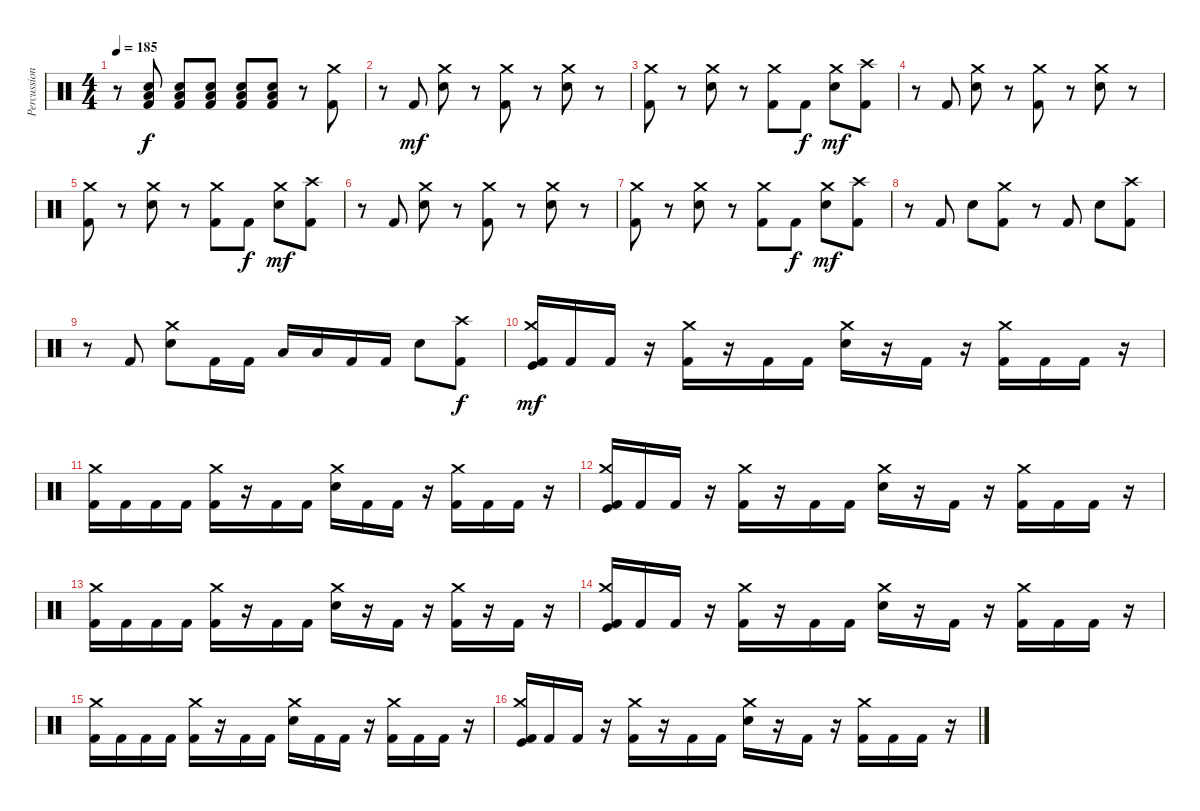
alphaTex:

\track ("Percussions" "Percussion") {instrument percussion}
\staff {score}
\articulation defaults
\ts (4 4)
\tempo 185
\clef neutral
\ks c
r.8{dy f} ("Kick (hit) 2" "Electric Snare (hit)" "Low Tom (hit)").8 ("Kick (hit) 2" "Electric Snare (hit)" "Low Tom (hit)").8 ("Kick (hit) 2" "Electric Snare (hit)" "Low Tom (hit)").8 ("Kick (hit) 2" "Electric Snare (hit)" "Low Tom (hit)").8 ("Kick (hit) 2" "Electric Snare (hit)" "Low Tom (hit)").8 r.8 ("Kick (hit) 2" "Crash medium (hit)").8 |
r.8 "Kick (hit) 2".8{dy mf} ("Electric Snare (hit)" "Crash medium (hit)").8 r.8 ("Kick (hit) 2" "Crash medium (hit)").8 r.8 ("Electric Snare (hit)" "Crash medium (hit)").8 r.8 |
("Kick (hit) 2" "Crash medium (hit)").8 r.8 ("Electric Snare (hit)" "Crash medium (hit)").8 r.8 ("Kick (hit) 2" "Crash medium (hit)").8 "Kick (hit) 2".8{dy f} ("Electric Snare (hit)" "Crash medium (hit)").8{dy mf} ("Kick (hit) 2" "Crash high (hit)").8 |
r.8 "Kick (hit) 2".8 ("Electric Snare (hit)" "Crash medium (hit)").8 r.8 ("Kick (hit) 2" "Crash medium (hit)").8 r.8 ("Electric Snare (hit)" "Crash medium (hit)").8 r.8 |
("Kick (hit) 2" "Crash medium (hit)").8 r.8 ("Electric Snare (hit)" "Crash medium (hit)").8 r.8 ("Kick (hit) 2" "Crash medium (hit)").8 "Kick (hit) 2".8{dy f} ("Electric Snare (hit)" "Crash medium (hit)").8{dy mf} ("Kick (hit) 2" "Crash high (hit)").8 |
r.8 "Kick (hit) 2".8 ("Electric Snare (hit)" "Crash medium (hit)").8 r.8 ("Kick (hit) 2" "Crash medium (hit)").8 r.8 ("Electric Snare (hit)" "Crash medium (hit)").8 r.8 |
("Kick (hit) 2" "Crash medium (hit)").8 r.8 ("Electric Snare (hit)" "Crash medium (hit)").8 r.8 ("Kick (hit) 2" "Crash medium (hit)").8 "Kick (hit) 2".8{dy f} ("Electric Snare (hit)" "Crash medium (hit)").8{dy mf} ("Kick (hit) 2" "Crash high (hit)").8 |
r.8 "Kick (hit) 2".8 "Electric Snare (hit)".8 ("Kick (hit) 2" "Crash medium (hit)").8 r.8 "Kick (hit) 2".8 "Electric Snare (hit)".8 ("Kick (hit) 2" "Crash high (hit)").8 |
r.8 "Kick (hit) 2".8 ("Electric Snare (hit)" "Crash medium (hit)").8 "Kick (hit) 2".16 "Kick (hit) 2".16 "Low Tom (hit)".16 "Low Tom (hit)".16 "Kick (hit) 2".16 "Kick (hit) 2".16 "Electric Snare (hit)".8 ("Kick (hit) 2" "Crash high (hit)").8{dy f} |
("Kick (hit) 2" "Kick (hit)" "Crash medium (hit)").16{dy mf} "Kick (hit) 2".16 "Kick (hit) 2".16 r.16 ("Kick (hit) 2" "Crash medium (hit)").16 r.16 "Kick (hit) 2".16 "Kick (hit) 2".16 ("Electric Snare (hit)" "Crash medium (hit)").16 r.16 "Kick (hit) 2".16 r.16 ("Kick (hit) 2" "Crash medium (hit)").16 "Kick (hit) 2".16 "Kick (hit) 2".16 r.16 |
("Kick (hit) 2" "Crash medium (hit)").16 "Kick (hit) 2".16 "Kick (hit) 2".16 "Kick (hit) 2".16 ("Kick (hit) 2" "Crash medium (hit)").16 r.16 "Kick (hit) 2".16 "Kick (hit) 2".16 ("Electric Snare (hit)" "Crash medium (hit)").16 "Kick (hit) 2".16 "Kick (hit) 2".16 r.16 ("Kick (hit) 2" "Crash medium (hit)").16 "Kick (hit) 2".16 "Kick (hit) 2".16 r.16 |
("Kick (hit) 2" "Kick (hit)" "Crash medium (hit)").16 "Kick (hit) 2".16 "Kick (hit) 2".16 r.16 ("Kick (hit) 2" "Crash medium (hit)").16 r.16 "Kick (hit) 2".16 "Kick (hit) 2".16 ("Electric Snare (hit)" "Crash medium (hit)").16 r.16 "Kick (hit) 2".16 r.16 ("Kick (hit) 2" "Crash medium (hit)").16 "Kick (hit) 2".16 "Kick (hit) 2".16 r.16 |
("Kick (hit) 2" "Crash medium (hit)").16 "Kick (hit) 2".16 "Kick (hit) 2".16 "Kick (hit) 2".16 ("Kick (hit) 2" "Crash medium (hit)").16 r.16 "Kick (hit) 2".16 "Kick (hit) 2".16 ("Electric Snare (hit)" "Crash medium (hit)").16 r.16 "Kick (hit) 2".16 r.16 ("Kick (hit) 2" "Crash medium (hit)").16 r.16 "Kick (hit) 2".16 r.16 |
("Kick (hit) 2" "Kick (hit)" "Crash medium (hit)").16 "Kick (hit) 2".16 "Kick (hit) 2".16 r.16 ("Kick (hit) 2" "Crash medium (hit)").16 r.16 "Kick (hit) 2".16 "Kick (hit) 2".16 ("Electric Snare (hit)" "Crash medium (hit)").16 r.16 "Kick (hit) 2".16 r.16 ("Kick (hit) 2" "Crash medium (hit)").16 "Kick (hit) 2".16 "Kick (hit) 2".16 r.16 |
("Kick (hit) 2" "Crash medium (hit)").16 "Kick (hit) 2".16 "Kick (hit) 2".16 "Kick (hit) 2".16 ("Kick (hit) 2" "Crash medium (hit)").16 r.16 "Kick (hit) 2".16 "Kick (hit) 2".16 ("Electric Snare (hit)" "Crash medium (hit)").16 "Kick (hit) 2".16 "Kick (hit) 2".16 r.16 ("Kick (hit) 2" "Crash medium (hit)").16 "Kick (hit) 2".16 "Kick (hit) 2".16 r.16 |
("Kick (hit) 2" "Kick (hit)" "Crash medium (hit)").16 "Kick (hit) 2".16 "Kick (hit) 2".16 r.16 ("Kick (hit) 2" "Crash medium (hit)").16 r.16 "Kick (hit) 2".16 "Kick (hit) 2".16 ("Electric Snare (hit)" "Crash medium (hit)").16 r.16 "Kick (hit) 2".16 r.16 ("Kick (hit) 2" "Crash medium (hit)").16 "Kick (hit) 2".16 "Kick (hit) 2".16 r.16
